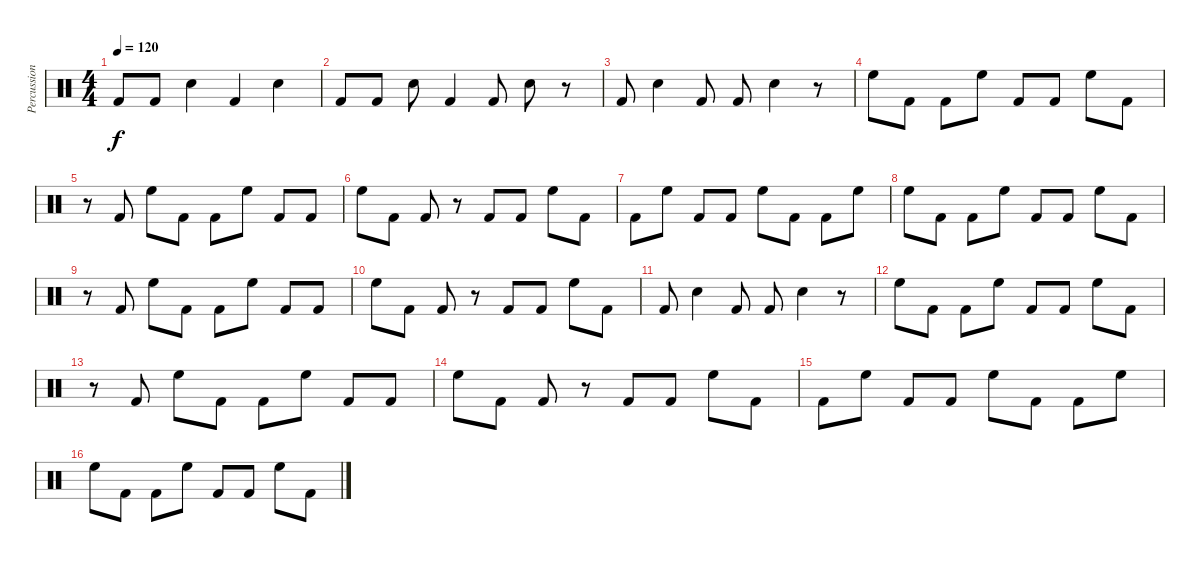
\track ("Percussion" "Percussion") {instrument percussion}
\staff {score}
\articulation defaults
\ts (4 4)
\tempo 120
\clef neutral
\ks c "Kick (hit) 2".8{dy f} "Kick (hit) 2".8 "Electric Snare (hit)".4 "Kick (hit) 2".4 "Electric Snare (hit)".4
|
"Kick (hit) 2".8 "Kick (hit) 2".8 "Electric Snare (hit)".8 "Kick (hit) 2".4 "Kick (hit) 2".8 "Electric Snare (hit)".8 r.8 |
"Kick (hit) 2".8 "Electric Snare (hit)".4 "Kick (hit) 2".8 "Kick (hit) 2".8 "Electric Snare (hit)".4 r.8 |
"High Floor Tom (hit)".8 "Kick (hit) 2".8 "Kick (hit) 2".8 "High Floor Tom (hit)".8 "Kick (hit) 2".8 "Kick (hit) 2".8 "High Floor Tom (hit)".8 "Kick (hit) 2".8 |
r.8 "Kick (hit) 2".8 "High Floor Tom (hit)".8 "Kick (hit) 2".8 "Kick (hit) 2".8 "High Floor Tom (hit)".8 "Kick (hit) 2".8 "Kick (hit) 2".8 |
"High Floor Tom (hit)".8 "Kick (hit) 2".8 "Kick (hit) 2".8 r.8 "Kick (hit) 2".8 "Kick (hit) 2".8 "High Floor Tom (hit)".8 "Kick (hit) 2".8 |
"Kick (hit) 2".8 "High Floor Tom (hit)".8 "Kick (hit) 2".8 "Kick (hit) 2".8 "High Floor Tom (hit)".8 "Kick (hit) 2".8 "Kick (hit) 2".8 "High Floor Tom (hit)".8 |
"High Floor Tom (hit)".8 "Kick (hit) 2".8 "Kick (hit) 2".8 "High Floor Tom (hit)".8 "Kick (hit) 2".8 "Kick (hit) 2".8 "High Floor Tom (hit)".8 "Kick (hit) 2".8 |
r.8 "Kick (hit) 2".8 "High Floor Tom (hit)".8 "Kick (hit) 2".8 "Kick (hit) 2".8 "High Floor Tom (hit)".8 "Kick (hit) 2".8 "Kick (hit) 2".8 |
"High Floor Tom (hit)".8 "Kick (hit) 2".8 "Kick (hit) 2".8 r.8 "Kick (hit) 2".8 "Kick (hit) 2".8 "High Floor Tom (hit)".8 "Kick (hit) 2".8 |
"Kick (hit) 2".8 "Electric Snare (hit)".4 "Kick (hit) 2".8 "Kick (hit) 2".8 "Electric Snare (hit)".4 r.8 |
"High Floor Tom (hit)".8 "Kick (hit) 2".8 "Kick (hit) 2".8 "High Floor Tom (hit)".8 "Kick (hit) 2".8 "Kick (hit) 2".8 "High Floor Tom (hit)".8 "Kick (hit) 2".8 |
r.8 "Kick (hit) 2".8 "High Floor Tom (hit)".8 "Kick (hit) 2".8 "Kick (hit) 2".8 "High Floor Tom (hit)".8 "Kick (hit) 2".8 "Kick (hit) 2".8 |
"High Floor Tom (hit)".8 "Kick (hit) 2".8 "Kick (hit) 2".8 r.8 "Kick (hit) 2".8 "Kick (hit) 2".8 "High Floor Tom (hit)".8 "Kick (hit) 2".8 |
"Kick (hit) 2".8 "High Floor Tom (hit)".8 "Kick (hit) 2".8 "Kick (hit) 2".8 "High Floor Tom (hit)".8 "Kick (hit) 2".8 "Kick (hit) 2".8 "High Floor Tom (hit)".8 |
"High Floor Tom (hit)".8 "Kick (hit) 2".8 "Kick (hit) 2".8 "High Floor Tom (hit)".8 "Kick (hit) 2".8 "Kick (hit) 2".8 "High Floor Tom (hit)".8 "Kick (hit) 2".8
